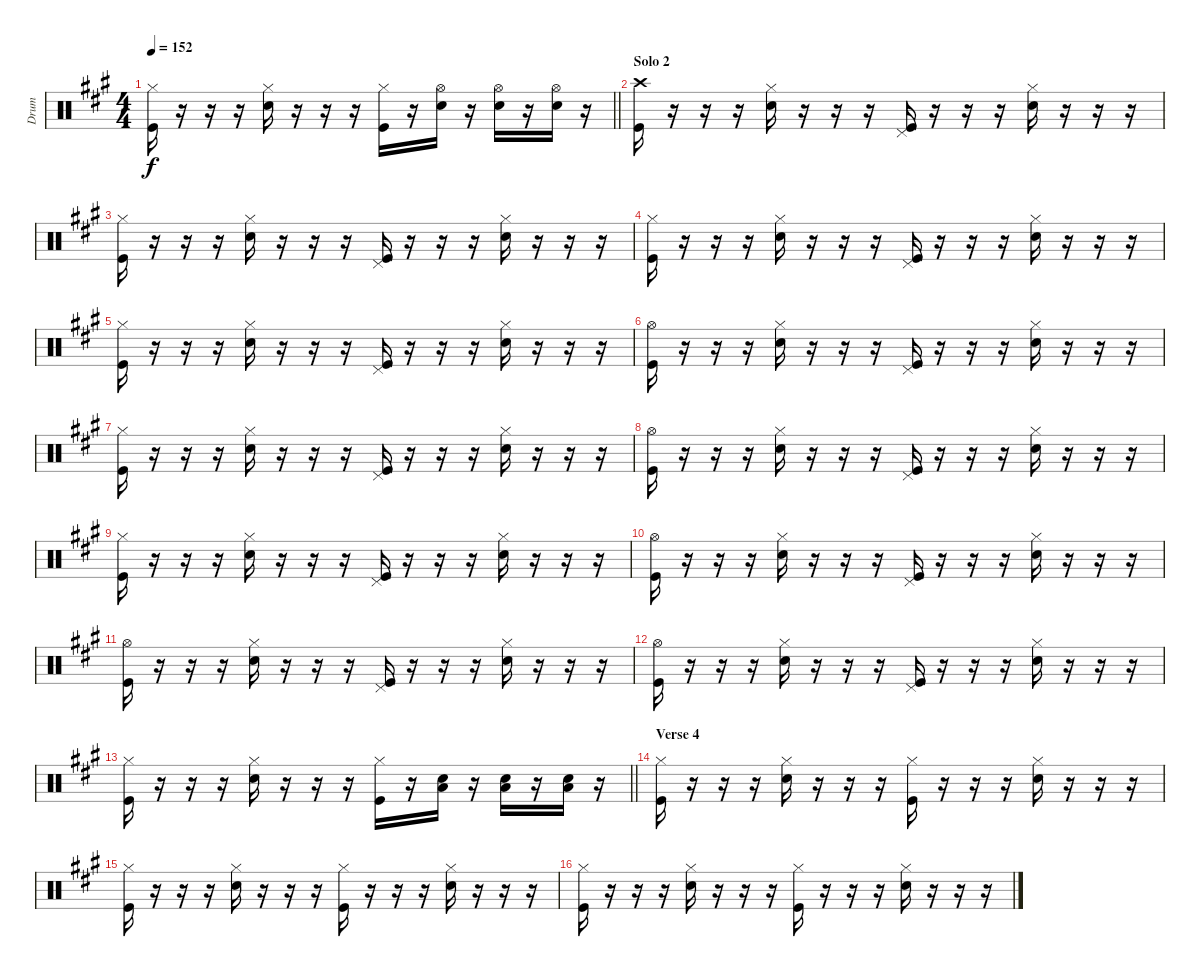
\track ("Drum" "Drum") {instrument percussion}
\staff {score}
\articulation defaults
\ts (4 4)
\tempo 152
\clef neutral
\barLineRight lightlight
\ks a
("Kick (hit)" "Hi-Hat (closed)").16{dy f} r.16 r.16 r.16 ("Snare (hit) 2" "Hi-Hat (closed)").16 r.16 r.16 r.16 ("Kick (hit)" "Hi-Hat (closed)").16 r.16 ("Snare (hit) 2" "Hi-Hat (open)").16 r.16 ("Snare (hit) 2" "Hi-Hat (open)").16 r.16 ("Snare (hit) 2" "Hi-Hat (open)").16 r.16 |
\section ("" "Solo 2")
("Kick (hit)" "Crash high (hit)").16 r.16 r.16 r.16 ("Snare (hit) 2" "Hi-Hat (closed)").16 r.16 r.16 r.16 ("Kick (hit)" "Pedal Hi-Hat (hit)").16 r.16 r.16 r.16 ("Snare (hit) 2" "Hi-Hat (closed)").16 r.16 r.16 r.16 |
("Kick (hit)" "Hi-Hat (closed)").16 r.16 r.16 r.16 ("Snare (hit) 2" "Hi-Hat (closed)").16 r.16 r.16 r.16 ("Kick (hit)" "Pedal Hi-Hat (hit)").16 r.16 r.16 r.16 ("Snare (hit) 2" "Hi-Hat (closed)").16 r.16 r.16 r.16 |
("Kick (hit)" "Hi-Hat (closed)").16 r.16 r.16 r.16 ("Snare (hit) 2" "Hi-Hat (closed)").16 r.16 r.16 r.16 ("Kick (hit)" "Pedal Hi-Hat (hit)").16 r.16 r.16 r.16 ("Snare (hit) 2" "Hi-Hat (closed)").16 r.16 r.16 r.16 |
("Kick (hit)" "Hi-Hat (closed)").16 r.16 r.16 r.16 ("Snare (hit) 2" "Hi-Hat (closed)").16 r.16 r.16 r.16 ("Kick (hit)" "Pedal Hi-Hat (hit)").16 r.16 r.16 r.16 ("Snare (hit) 2" "Hi-Hat (closed)").16 r.16 r.16 r.16 |
("Kick (hit)" "Hi-Hat (open)").16 r.16 r.16 r.16 ("Snare (hit) 2" "Hi-Hat (closed)").16 r.16 r.16 r.16 ("Kick (hit)" "Pedal Hi-Hat (hit)").16 r.16 r.16 r.16 ("Snare (hit) 2" "Hi-Hat (closed)").16 r.16 r.16 r.16 |
("Kick (hit)" "Hi-Hat (closed)").16 r.16 r.16 r.16 ("Snare (hit) 2" "Hi-Hat (closed)").16 r.16 r.16 r.16 ("Kick (hit)" "Pedal Hi-Hat (hit)").16 r.16 r.16 r.16 ("Snare (hit) 2" "Hi-Hat (closed)").16 r.16 r.16 r.16 |
("Kick (hit)" "Hi-Hat (open)").16 r.16 r.16 r.16 ("Snare (hit) 2" "Hi-Hat (closed)").16 r.16 r.16 r.16 ("Kick (hit)" "Pedal Hi-Hat (hit)").16 r.16 r.16 r.16 ("Snare (hit) 2" "Hi-Hat (closed)").16 r.16 r.16 r.16 |
("Kick (hit)" "Hi-Hat (closed)").16 r.16 r.16 r.16 ("Snare (hit) 2" "Hi-Hat (closed)").16 r.16 r.16 r.16 ("Kick (hit)" "Pedal Hi-Hat (hit)").16 r.16 r.16 r.16 ("Snare (hit) 2" "Hi-Hat (closed)").16 r.16 r.16 r.16 |
("Kick (hit)" "Hi-Hat (open)").16 r.16 r.16 r.16 ("Snare (hit) 2" "Hi-Hat (closed)").16 r.16 r.16 r.16 ("Kick (hit)" "Pedal Hi-Hat (hit)").16 r.16 r.16 r.16 ("Snare (hit) 2" "Hi-Hat (closed)").16 r.16 r.16 r.16 |
("Kick (hit)" "Hi-Hat (open)").16 r.16 r.16 r.16 ("Snare (hit) 2" "Hi-Hat (closed)").16 r.16 r.16 r.16 ("Kick (hit)" "Pedal Hi-Hat (hit)").16 r.16 r.16 r.16 ("Snare (hit) 2" "Hi-Hat (closed)").16 r.16 r.16 r.16 |
("Kick (hit)" "Hi-Hat (open)").16 r.16 r.16 r.16 ("Snare (hit) 2" "Hi-Hat (closed)").16 r.16 r.16 r.16 ("Kick (hit)" "Pedal Hi-Hat (hit)").16 r.16 r.16 r.16 ("Snare (hit) 2" "Hi-Hat (closed)").16 r.16 r.16 r.16 |
\barLineRight lightlight
("Kick (hit)" "Hi-Hat (closed)").16 r.16 r.16 r.16 ("Snare (hit) 2" "Hi-Hat (closed)").16 r.16 r.16 r.16 ("Kick (hit)" "Hi-Hat (closed)").16 r.16 ("Snare (hit) 2" "Low Floor Tom (hit)").16 r.16 ("Snare (hit) 2" "Low Floor Tom (hit)").16 r.16 ("Snare (hit) 2" "Low Floor Tom (hit)").16 r.16 |
\section ("" "Verse 4")
("Kick (hit)" "Hi-Hat (closed)").16 r.16 r.16 r.16 ("Snare (hit) 2" "Hi-Hat (closed)").16 r.16 r.16 r.16 ("Kick (hit)" "Hi-Hat (closed)").16 r.16 r.16 r.16 ("Snare (hit) 2" "Hi-Hat (closed)").16 r.16 r.16 r.16 |
("Kick (hit)" "Hi-Hat (closed)").16 r.16 r.16 r.16 ("Snare (hit) 2" "Hi-Hat (closed)").16 r.16 r.16 r.16 ("Kick (hit)" "Hi-Hat (closed)").16 r.16 r.16 r.16 ("Snare (hit) 2" "Hi-Hat (closed)").16 r.16 r.16 r.16 |
("Kick (hit)" "Hi-Hat (closed)").16 r.16 r.16 r.16 ("Snare (hit) 2" "Hi-Hat (closed)").16 r.16 r.16 r.16 ("Kick (hit)" "Hi-Hat (closed)").16 r.16 r.16 r.16 ("Snare (hit) 2" "Hi-Hat (closed)").16 r.16 r.16 r.16
